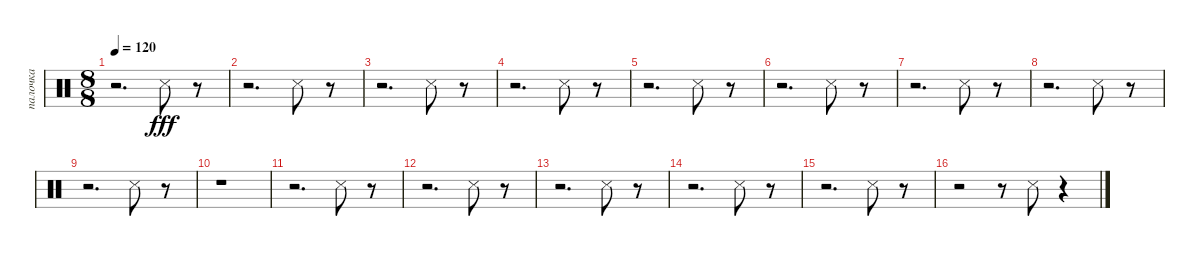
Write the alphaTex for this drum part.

\track ("палочка" "палочка") {instrument percussion}
\staff {score}
\articulation defaults
\ts (8 8)
\tempo 120
\clef neutral
\ks c
r.2{d dy fff} "Snare (side stick) 3".8 r.8 |
r.2{d} "Snare (side stick) 3".8 r.8 |
r.2{d} "Snare (side stick) 3".8 r.8 |
r.2{d} "Snare (side stick) 3".8 r.8 |
r.2{d} "Snare (side stick) 3".8 r.8 |
r.2{d} "Snare (side stick) 3".8 r.8 |
r.2{d} "Snare (side stick) 3".8 r.8 |
r.2{d} "Snare (side stick) 3".8 r.8 |
r.2{d} "Snare (side stick) 3".8 r.8 |
r.1 |
r.2{d} "Snare (side stick) 3".8 r.8 |
r.2{d} "Snare (side stick) 3".8 r.8 |
r.2{d} "Snare (side stick) 3".8 r.8 |
r.2{d} "Snare (side stick) 3".8 r.8 |
r.2{d} "Snare (side stick) 3".8 r.8 |
r.2 r.8 "Snare (side stick) 3".8 r.4
